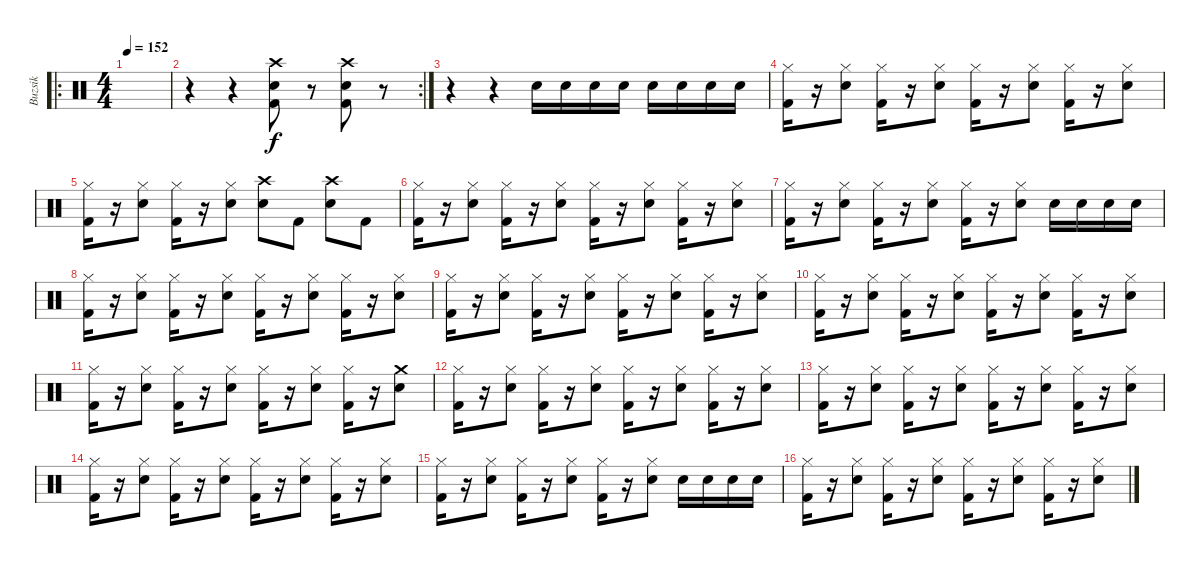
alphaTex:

\track ("Buzsik" "Buzsik") {instrument percussion}
\staff {score}
\articulation defaults
\ro
\ts (4 4)
\tempo 152
\clef neutral
\ks c
|
\rc 2
r.4 r.4 ("Crash high (hit)" "Snare (hit) 2" "Kick (hit) 2").8 r.8 ("Crash high (hit)" "Snare (hit) 2" "Kick (hit) 2").8 r.8 |
r.4 r.4 "Electric Snare (hit)".16 "Electric Snare (hit)".16 "Electric Snare (hit)".16 "Electric Snare (hit)".16 "Electric Snare (hit)".16 "Electric Snare (hit)".16 "Electric Snare (hit)".16 "Electric Snare (hit)".16 |
("Hi-Hat (closed)" "Kick (hit) 2").16 r.16 ("Hi-Hat (closed)" "Electric Snare (hit)").8 ("Hi-Hat (closed)" "Kick (hit) 2").16 r.16 ("Hi-Hat (closed)" "Electric Snare (hit)").8 ("Hi-Hat (closed)" "Kick (hit) 2").16 r.16 ("Hi-Hat (closed)" "Electric Snare (hit)").8 ("Hi-Hat (closed)" "Kick (hit) 2").16 r.16 ("Hi-Hat (closed)" "Electric Snare (hit)").8 |
("Hi-Hat (closed)" "Kick (hit) 2").16 r.16 ("Hi-Hat (closed)" "Electric Snare (hit)").8 ("Hi-Hat (closed)" "Kick (hit) 2").16 r.16 ("Hi-Hat (closed)" "Electric Snare (hit)").8 ("Crash high (hit)" "Snare (hit) 2").8 "Kick (hit) 2".8 ("Crash high (hit)" "Snare (hit) 2").8 "Kick (hit) 2".8 |
("Hi-Hat (closed)" "Kick (hit) 2").16 r.16 ("Hi-Hat (closed)" "Electric Snare (hit)").8 ("Hi-Hat (closed)" "Kick (hit) 2").16 r.16 ("Hi-Hat (closed)" "Electric Snare (hit)").8 ("Hi-Hat (closed)" "Kick (hit) 2").16 r.16 ("Hi-Hat (closed)" "Electric Snare (hit)").8 ("Hi-Hat (closed)" "Kick (hit) 2").16 r.16 ("Hi-Hat (closed)" "Electric Snare (hit)").8 |
("Hi-Hat (closed)" "Kick (hit) 2").16 r.16 ("Hi-Hat (closed)" "Electric Snare (hit)").8 ("Hi-Hat (closed)" "Kick (hit) 2").16 r.16 ("Hi-Hat (closed)" "Electric Snare (hit)").8 ("Hi-Hat (closed)" "Kick (hit) 2").16 r.16 ("Hi-Hat (closed)" "Electric Snare (hit)").8 "Electric Snare (hit)".16 "Electric Snare (hit)".16 "Electric Snare (hit)".16 "Electric Snare (hit)".16 |
("Hi-Hat (closed)" "Kick (hit) 2").16 r.16 ("Hi-Hat (closed)" "Electric Snare (hit)").8 ("Hi-Hat (closed)" "Kick (hit) 2").16 r.16 ("Hi-Hat (closed)" "Electric Snare (hit)").8 ("Hi-Hat (closed)" "Kick (hit) 2").16 r.16 ("Hi-Hat (closed)" "Electric Snare (hit)").8 ("Hi-Hat (closed)" "Kick (hit) 2").16 r.16 ("Hi-Hat (closed)" "Electric Snare (hit)").8 |
("Hi-Hat (closed)" "Kick (hit) 2").16 r.16 ("Hi-Hat (closed)" "Electric Snare (hit)").8 ("Hi-Hat (closed)" "Kick (hit) 2").16 r.16 ("Hi-Hat (closed)" "Electric Snare (hit)").8 ("Hi-Hat (closed)" "Kick (hit) 2").16 r.16 ("Hi-Hat (closed)" "Electric Snare (hit)").8 ("Hi-Hat (closed)" "Kick (hit) 2").16 r.16 ("Hi-Hat (closed)" "Electric Snare (hit)").8 |
("Hi-Hat (closed)" "Kick (hit) 2").16 r.16 ("Hi-Hat (closed)" "Electric Snare (hit)").8 ("Hi-Hat (closed)" "Kick (hit) 2").16 r.16 ("Hi-Hat (closed)" "Electric Snare (hit)").8 ("Hi-Hat (closed)" "Kick (hit) 2").16 r.16 ("Hi-Hat (closed)" "Electric Snare (hit)").8 ("Hi-Hat (closed)" "Kick (hit) 2").16 r.16 ("Hi-Hat (closed)" "Electric Snare (hit)").8 |
("Hi-Hat (closed)" "Kick (hit) 2").16 r.16 ("Hi-Hat (closed)" "Electric Snare (hit)").8 ("Hi-Hat (closed)" "Kick (hit) 2").16 r.16 ("Hi-Hat (closed)" "Electric Snare (hit)").8 ("Hi-Hat (closed)" "Kick (hit) 2").16 r.16 ("Hi-Hat (closed)" "Electric Snare (hit)").8 ("Hi-Hat (closed)" "Kick (hit) 2").16 r.16 ("Crash medium (hit)" "Electric Snare (hit)").8 |
("Hi-Hat (closed)" "Kick (hit) 2").16 r.16 ("Hi-Hat (closed)" "Electric Snare (hit)").8 ("Hi-Hat (closed)" "Kick (hit) 2").16 r.16 ("Hi-Hat (closed)" "Electric Snare (hit)").8 ("Hi-Hat (closed)" "Kick (hit) 2").16 r.16 ("Hi-Hat (closed)" "Electric Snare (hit)").8 ("Hi-Hat (closed)" "Kick (hit) 2").16 r.16 ("Hi-Hat (closed)" "Electric Snare (hit)").8 |
("Hi-Hat (closed)" "Kick (hit) 2").16 r.16 ("Hi-Hat (closed)" "Electric Snare (hit)").8 ("Hi-Hat (closed)" "Kick (hit) 2").16 r.16 ("Hi-Hat (closed)" "Electric Snare (hit)").8 ("Hi-Hat (closed)" "Kick (hit) 2").16 r.16 ("Hi-Hat (closed)" "Electric Snare (hit)").8 ("Hi-Hat (closed)" "Kick (hit) 2").16 r.16 ("Hi-Hat (closed)" "Electric Snare (hit)").8 |
("Hi-Hat (closed)" "Kick (hit) 2").16 r.16 ("Hi-Hat (closed)" "Electric Snare (hit)").8 ("Hi-Hat (closed)" "Kick (hit) 2").16 r.16 ("Hi-Hat (closed)" "Electric Snare (hit)").8 ("Hi-Hat (closed)" "Kick (hit) 2").16 r.16 ("Hi-Hat (closed)" "Electric Snare (hit)").8 ("Hi-Hat (closed)" "Kick (hit) 2").16 r.16 ("Hi-Hat (closed)" "Electric Snare (hit)").8 |
("Hi-Hat (closed)" "Kick (hit) 2").16 r.16 ("Hi-Hat (closed)" "Electric Snare (hit)").8 ("Hi-Hat (closed)" "Kick (hit) 2").16 r.16 ("Hi-Hat (closed)" "Electric Snare (hit)").8 ("Hi-Hat (closed)" "Kick (hit) 2").16 r.16 ("Hi-Hat (closed)" "Electric Snare (hit)").8 "Electric Snare (hit)".16 "Electric Snare (hit)".16 "Electric Snare (hit)".16 "Electric Snare (hit)".16 |
("Hi-Hat (closed)" "Kick (hit) 2").16 r.16 ("Hi-Hat (closed)" "Electric Snare (hit)").8 ("Hi-Hat (closed)" "Kick (hit) 2").16 r.16 ("Hi-Hat (closed)" "Electric Snare (hit)").8 ("Hi-Hat (closed)" "Kick (hit) 2").16 r.16 ("Hi-Hat (closed)" "Electric Snare (hit)").8 ("Hi-Hat (closed)" "Kick (hit) 2").16 r.16 ("Hi-Hat (closed)" "Electric Snare (hit)").8
